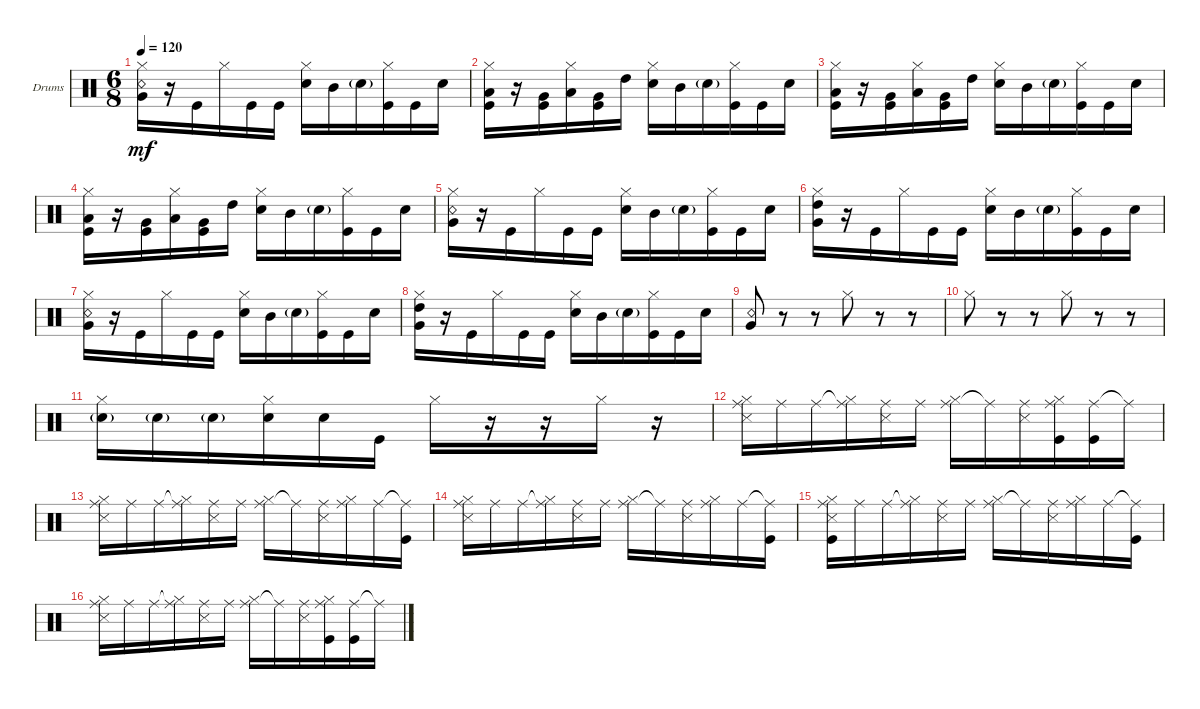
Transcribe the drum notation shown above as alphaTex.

\defaultSystemsLayout 4
\bracketExtendMode groupsimilarinstruments
\firstSystemTrackNameOrientation horizontal
\otherSystemsTrackNameOrientation horizontal
\track ("Drumkit" "Drums") {instrument percussion}
\staff {score}
\articulation defaults
\ts (6 8)
\tempo 120
\clef neutral
\ks c
("Very Low Tom (hit)" "Snare (rim shot)" "Hi-Hat (closed)").16{dy mf} r.16 "Kick (hit)".16 "Hi-Hat (closed)".16 "Kick (hit)".16 "Kick (hit)".16 ("Snare (hit) 2" "Hi-Hat (closed)").16 "Mid Tom (hit)".16 "Snare (hit) 2"{g}.16 ("Kick (hit)" "Hi-Hat (closed)").16 "Kick (hit)".16 "Snare (hit) 2".16 |
("Kick (hit)" "Low Tom (hit)" "Hi-Hat (closed)").16 r.16 ("Kick (hit)" "Very Low Tom (hit)").16 ("Hi-Hat (closed)" "Low Tom (hit)").16 ("Kick (hit)" "Very Low Tom (hit)").16 "High Tom (hit)".16 ("Snare (hit) 2" "Hi-Hat (closed)").16 "Mid Tom (hit)".16 "Snare (hit) 2"{g}.16 ("Kick (hit)" "Hi-Hat (closed)").16 "Kick (hit)".16 "Snare (hit) 2".16 |
("Kick (hit)" "Low Tom (hit)" "Hi-Hat (closed)").16 r.16 ("Kick (hit)" "Very Low Tom (hit)").16 ("Hi-Hat (closed)" "Low Tom (hit)").16 ("Kick (hit)" "Very Low Tom (hit)").16 "High Tom (hit)".16 ("Snare (hit) 2" "Hi-Hat (closed)").16 "Mid Tom (hit)".16 "Snare (hit) 2"{g}.16 ("Kick (hit)" "Hi-Hat (closed)").16 "Kick (hit)".16 "Snare (hit) 2".16 |
("Kick (hit)" "Low Tom (hit)" "Hi-Hat (closed)").16 r.16 ("Kick (hit)" "Very Low Tom (hit)").16 ("Hi-Hat (closed)" "Low Tom (hit)").16 ("Kick (hit)" "Very Low Tom (hit)").16 "High Tom (hit)".16 ("Snare (hit) 2" "Hi-Hat (closed)").16 "Mid Tom (hit)".16 "Snare (hit) 2"{g}.16 ("Kick (hit)" "Hi-Hat (closed)").16 "Kick (hit)".16 "Snare (hit) 2".16 |
("Very Low Tom (hit)" "Snare (rim shot)" "Hi-Hat (closed)").16 r.16 "Kick (hit)".16 "Hi-Hat (closed)".16 "Kick (hit)".16 "Kick (hit)".16 ("Snare (hit) 2" "Hi-Hat (closed)").16 "Mid Tom (hit)".16 "Snare (hit) 2"{g}.16 ("Kick (hit)" "Hi-Hat (closed)").16 "Kick (hit)".16 "Snare (hit) 2".16 |
("Very Low Tom (hit)" "Hi-Hat (closed)" "High Tom (hit)").16 r.16 "Kick (hit)".16 "Hi-Hat (closed)".16 "Kick (hit)".16 "Kick (hit)".16 ("Snare (hit) 2" "Hi-Hat (closed)").16 "Mid Tom (hit)".16 "Snare (hit) 2"{g}.16 ("Kick (hit)" "Hi-Hat (closed)").16 "Kick (hit)".16 "Snare (hit) 2".16 |
("Very Low Tom (hit)" "Snare (rim shot)" "Hi-Hat (closed)").16 r.16 "Kick (hit)".16 "Hi-Hat (closed)".16 "Kick (hit)".16 "Kick (hit)".16 ("Snare (hit) 2" "Hi-Hat (closed)").16 "Mid Tom (hit)".16 "Snare (hit) 2"{g}.16 ("Kick (hit)" "Hi-Hat (closed)").16 "Kick (hit)".16 "Snare (hit) 2".16 |
("Very Low Tom (hit)" "Hi-Hat (closed)" "High Tom (hit)").16 r.16 "Kick (hit)".16 "Hi-Hat (closed)".16 "Kick (hit)".16 "Kick (hit)".16 ("Snare (hit) 2" "Hi-Hat (closed)").16 "Mid Tom (hit)".16 "Snare (hit) 2"{g}.16 ("Kick (hit)" "Hi-Hat (closed)").16 "Kick (hit)".16 "Snare (hit) 2".16 |
("Very Low Tom (hit)" "Snare (rim shot)").8 r.8 r.8 "Hi-Hat (closed)".8 r.8 r.8 |
"Hi-Hat (closed)".8 r.8 r.8 "Hi-Hat (closed)".8 r.8 r.8 |
("Hi-Hat (closed)" "Snare (hit) 2"{g}).16 "Snare (hit) 2"{g}.16 "Snare (hit) 2"{g}.16 ("Snare (hit) 2" "Hi-Hat (closed)").16 "Snare (hit) 2".16 "Kick (hit)".16 "Hi-Hat (closed)".16 r.16 r.16 "Hi-Hat (closed)".16 r.16 |
("Snare (side stick) 3" "Ride (middle)" "Hi-Hat (closed)").16 "Ride (middle)".16 "Ride (middle)".16 ("Ride (middle)"{t} "Hi-Hat (closed)").16 ("Snare (side stick) 3" "Ride (middle)").16 "Ride (middle)".16 ("Ride (middle)" "Hi-Hat (closed)").16 "Ride (middle)"{t}.16 ("Snare (side stick) 3" "Ride (middle)").16 ("Ride (middle)" "Kick (hit)" "Hi-Hat (closed)").16 ("Ride (middle)" "Kick (hit)").16 "Ride (middle)"{t}.16 |
("Snare (side stick) 3" "Ride (middle)" "Hi-Hat (closed)").16 "Ride (middle)".16 "Ride (middle)".16 ("Ride (middle)"{t} "Hi-Hat (closed)").16 ("Snare (side stick) 3" "Ride (middle)").16 "Ride (middle)".16 ("Ride (middle)" "Hi-Hat (closed)").16 "Ride (middle)"{t}.16 ("Snare (side stick) 3" "Ride (middle)").16 ("Ride (middle)" "Hi-Hat (closed)").16 "Ride (middle)".16 ("Ride (middle)"{t} "Kick (hit)").16 |
("Snare (side stick) 3" "Ride (middle)" "Hi-Hat (closed)").16 "Ride (middle)".16 "Ride (middle)".16 ("Ride (middle)"{t} "Hi-Hat (closed)").16 ("Snare (side stick) 3" "Ride (middle)").16 "Ride (middle)".16 ("Ride (middle)" "Hi-Hat (closed)").16 "Ride (middle)"{t}.16 ("Snare (side stick) 3" "Ride (middle)").16 ("Ride (middle)" "Hi-Hat (closed)").16 "Ride (middle)".16 ("Ride (middle)"{t} "Kick (hit)").16 |
("Snare (side stick) 3" "Ride (middle)" "Hi-Hat (closed)" "Kick (hit)").16 "Ride (middle)".16 "Ride (middle)".16 ("Ride (middle)"{t} "Hi-Hat (closed)").16 ("Snare (side stick) 3" "Ride (middle)").16 "Ride (middle)".16 ("Ride (middle)" "Hi-Hat (closed)").16 "Ride (middle)"{t}.16 ("Snare (side stick) 3" "Ride (middle)").16 ("Ride (middle)" "Hi-Hat (closed)").16 "Ride (middle)".16 ("Ride (middle)"{t} "Kick (hit)").16 |
("Snare (side stick) 3" "Ride (middle)" "Hi-Hat (closed)").16 "Ride (middle)".16 "Ride (middle)".16 ("Ride (middle)"{t} "Hi-Hat (closed)").16 ("Snare (side stick) 3" "Ride (middle)").16 "Ride (middle)".16 ("Ride (middle)" "Hi-Hat (closed)").16 "Ride (middle)"{t}.16 ("Snare (side stick) 3" "Ride (middle)").16 ("Ride (middle)" "Kick (hit)" "Hi-Hat (closed)").16 ("Ride (middle)" "Kick (hit)").16 "Ride (middle)"{t}.16
